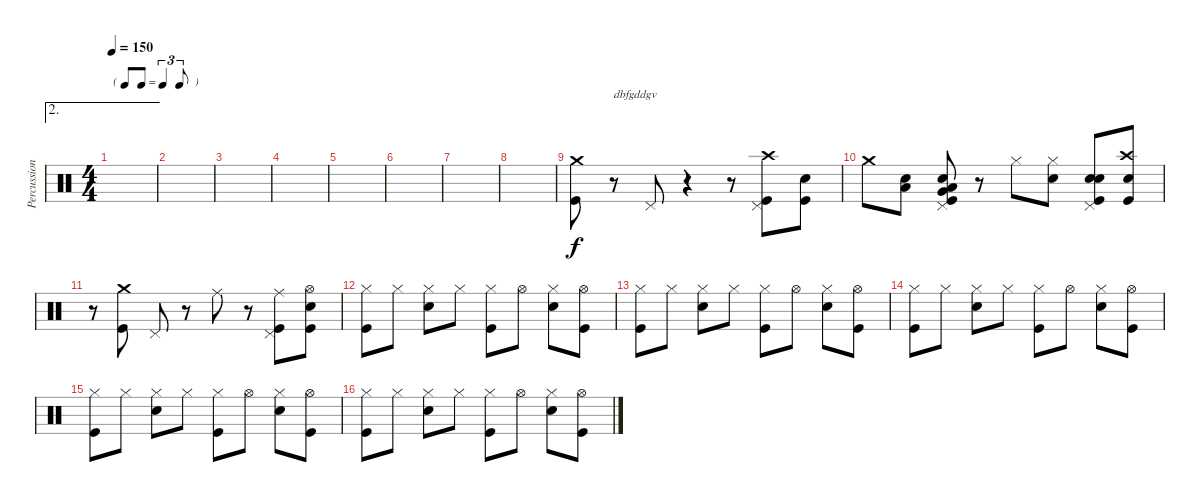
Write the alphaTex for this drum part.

\track ("Percussions" "Percussion") {instrument percussion}
\staff {score}
\articulation defaults
\ae 2
\ts (4 4)
\tf triplet8th
\tempo 150
\clef neutral
\ks c
|
|
|
|
|
|
|
|
("Kick (hit)" "Crash medium (hit)").8 r.8{txt "dbfgddgv"} "Pedal Hi-Hat (hit)".8 r.4 r.8 ("Crash high (hit)" "Kick (hit)" "Pedal Hi-Hat (hit)").8 ("Snare (hit)" "Kick (hit)").8 |
"Crash medium (hit)".8 ("Snare (hit)" "Low Tom (hit)").8 ("Snare (hit)" "Very Low Tom (hit)" "Low Floor Tom (hit)" "Pedal Hi-Hat (hit)" "Kick (hit)").8 r.8 "Hi-Hat (closed)".8 ("Snare (hit)" "Hi-Hat (closed)").8 ("Snare (hit)" "Hand Clap (hit)" "Pedal Hi-Hat (hit)" "Kick (hit)").8 ("Snare (hit)" "Crash high (hit)" "Kick (hit)").8 |
r.8 ("Kick (hit)" "Crash medium (hit)").8 "Pedal Hi-Hat (hit)".8 r.8 "Ride (middle)".8 r.8 ("Ride (middle)" "Pedal Hi-Hat (hit)" "Kick (hit)").8 ("Snare (hit)" "Kick (hit)" "Hi-Hat (open)").8 |
("Kick (hit)" "Hi-Hat (closed)").8 "Hi-Hat (closed)".8 ("Snare (hit) 2" "Hi-Hat (closed)").8 "Hi-Hat (closed)".8 ("Kick (hit)" "Hi-Hat (closed)").8 "Hi-Hat (open)".8 ("Snare (hit) 2" "Hi-Hat (closed)").8 ("Kick (hit)" "Hi-Hat (open)").8 |
("Kick (hit)" "Hi-Hat (closed)").8 "Hi-Hat (closed)".8 ("Snare (hit) 2" "Hi-Hat (closed)").8 "Hi-Hat (closed)".8 ("Kick (hit)" "Hi-Hat (closed)").8 "Hi-Hat (open)".8 ("Snare (hit) 2" "Hi-Hat (closed)").8 ("Kick (hit)" "Hi-Hat (open)").8 |
("Kick (hit)" "Hi-Hat (closed)").8 "Hi-Hat (closed)".8 ("Snare (hit) 2" "Hi-Hat (closed)").8 "Hi-Hat (closed)".8 ("Kick (hit)" "Hi-Hat (closed)").8 "Hi-Hat (open)".8 ("Snare (hit) 2" "Hi-Hat (closed)").8 ("Kick (hit)" "Hi-Hat (open)").8 |
("Kick (hit)" "Hi-Hat (closed)").8 "Hi-Hat (closed)".8 ("Snare (hit) 2" "Hi-Hat (closed)").8 "Hi-Hat (closed)".8 ("Kick (hit)" "Hi-Hat (closed)").8 "Hi-Hat (open)".8 ("Snare (hit) 2" "Hi-Hat (closed)").8 ("Kick (hit)" "Hi-Hat (open)").8 |
("Kick (hit)" "Hi-Hat (closed)").8 "Hi-Hat (closed)".8 ("Snare (hit) 2" "Hi-Hat (closed)").8 "Hi-Hat (closed)".8 ("Kick (hit)" "Hi-Hat (closed)").8 "Hi-Hat (open)".8 ("Snare (hit) 2" "Hi-Hat (closed)").8 ("Kick (hit)" "Hi-Hat (open)").8
